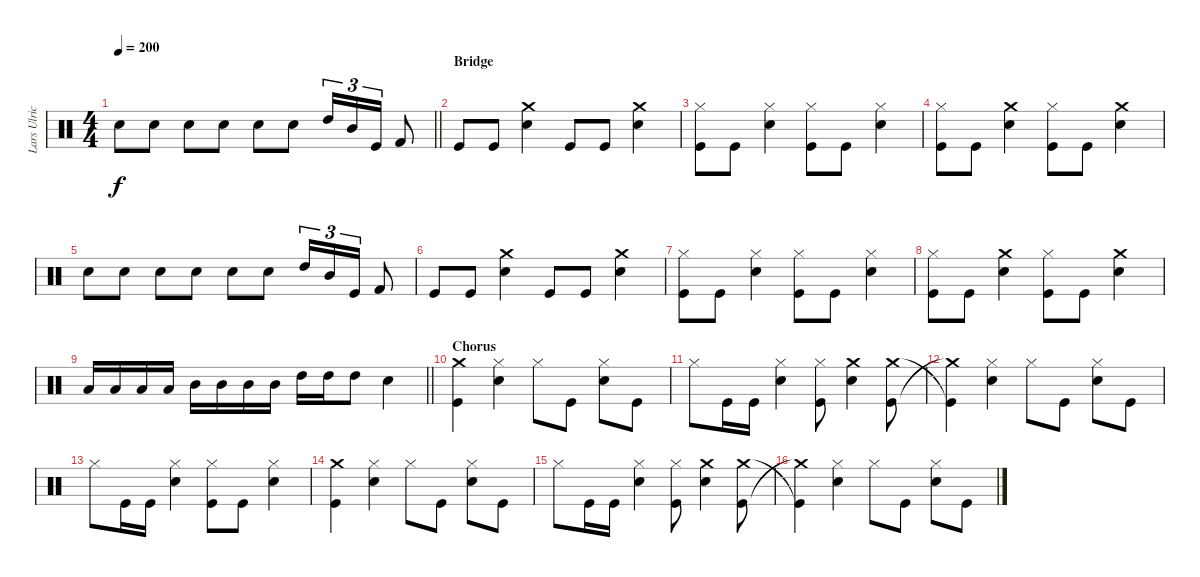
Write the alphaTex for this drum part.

\track ("Lars Ulrich (Drums)" "Lars Ulric") {instrument percussion}
\staff {score}
\articulation defaults
\ts (4 4)
\tempo 200
\clef neutral
\barLineRight lightlight
\ks c "Snare (hit) 2".8{dy f} "Snare (hit) 2".8 "Snare (hit) 2".8 "Snare (hit) 2".8 "Snare (hit) 2".8 "Snare (hit) 2".8 "High Tom (hit)".16{tu (3 2)} "Mid Tom (hit)".16{tu (3 2)} "Kick (hit)".16{tu (3 2)} "Kick (hit) 2".8
|
\section ("" "Bridge")
"Kick (hit)".8 "Kick (hit)".8 ("Crash medium (hit)" "Snare (hit) 2").4 "Kick (hit)".8 "Kick (hit)".8 ("Crash medium (hit)" "Snare (hit) 2").4 |
("Kick (hit)" "Hi-Hat (closed)").8 "Kick (hit)".8 ("Snare (hit) 2" "Hi-Hat (closed)").4 ("Kick (hit)" "Hi-Hat (closed)").8 "Kick (hit)".8 ("Snare (hit) 2" "Hi-Hat (closed)").4 |
("Kick (hit)" "Hi-Hat (closed)").8 "Kick (hit)".8 ("Snare (hit) 2" "Crash medium (hit)").4 ("Kick (hit)" "Hi-Hat (closed)").8 "Kick (hit)".8 ("Crash medium (hit)" "Snare (hit) 2").4 |
"Snare (hit) 2".8 "Snare (hit) 2".8 "Snare (hit) 2".8 "Snare (hit) 2".8 "Snare (hit) 2".8 "Snare (hit) 2".8 "High Tom (hit)".16{tu (3 2)} "Mid Tom (hit)".16{tu (3 2)} "Kick (hit)".16{tu (3 2)} "Kick (hit) 2".8 |
"Kick (hit)".8 "Kick (hit)".8 ("Crash medium (hit)" "Snare (hit) 2").4 "Kick (hit)".8 "Kick (hit)".8 ("Crash medium (hit)" "Snare (hit) 2").4 |
("Kick (hit)" "Hi-Hat (closed)").8 "Kick (hit)".8 ("Snare (hit) 2" "Hi-Hat (closed)").4 ("Kick (hit)" "Hi-Hat (closed)").8 "Kick (hit)".8 ("Snare (hit) 2" "Hi-Hat (closed)").4 |
("Kick (hit)" "Hi-Hat (closed)").8 "Kick (hit)".8 ("Snare (hit) 2" "Crash medium (hit)").4 ("Kick (hit)" "Hi-Hat (closed)").8 "Kick (hit)".8 ("Crash medium (hit)" "Snare (hit) 2").4 |
\barLineRight lightlight "Low Tom (hit)".16 "Low Tom (hit)".16 "Low Tom (hit)".16 "Low Tom (hit)".16 "Mid Tom (hit)".16 "Mid Tom (hit)".16 "Mid Tom (hit)".16 "Mid Tom (hit)".16 "High Tom (hit)".16 "High Tom (hit)".16 "High Tom (hit)".8 "Snare (hit) 2".4
|
\section ("" "Chorus")
("Kick (hit)" "Crash medium (hit)").4 ("Hi-Hat (closed)" "Snare (hit) 2").4 "Hi-Hat (closed)".8 "Kick (hit)".8 ("Snare (hit) 2" "Hi-Hat (closed)").8 "Kick (hit)".8 |
"Hi-Hat (closed)".8 "Kick (hit)".16 "Kick (hit)".16 ("Snare (hit) 2" "Hi-Hat (closed)").4 ("Kick (hit)" "Hi-Hat (closed)").8 ("Snare (hit) 2" "Crash medium (hit)").4 ("Crash medium (hit)" "Kick (hit)").8 |
("Kick (hit)"{t} "Crash medium (hit)"{t}).4 ("Hi-Hat (closed)" "Snare (hit) 2").4 "Hi-Hat (closed)".8 "Kick (hit)".8 ("Snare (hit) 2" "Hi-Hat (closed)").8 "Kick (hit)".8 |
"Hi-Hat (closed)".8 "Kick (hit)".16 "Kick (hit)".16 ("Snare (hit) 2" "Hi-Hat (closed)").4 ("Hi-Hat (closed)" "Kick (hit)").8 "Kick (hit)".8 ("Snare (hit) 2" "Hi-Hat (closed)").4 |
("Kick (hit)" "Crash medium (hit)").4 ("Hi-Hat (closed)" "Snare (hit) 2").4 "Hi-Hat (closed)".8 "Kick (hit)".8 ("Snare (hit) 2" "Hi-Hat (closed)").8 "Kick (hit)".8 |
"Hi-Hat (closed)".8 "Kick (hit)".16 "Kick (hit)".16 ("Snare (hit) 2" "Hi-Hat (closed)").4 ("Kick (hit)" "Hi-Hat (closed)").8 ("Snare (hit) 2" "Crash medium (hit)").4 ("Crash medium (hit)" "Kick (hit)").8 |
("Kick (hit)"{t} "Crash medium (hit)"{t}).4 ("Hi-Hat (closed)" "Snare (hit) 2").4 "Hi-Hat (closed)".8 "Kick (hit)".8 ("Snare (hit) 2" "Hi-Hat (closed)").8 "Kick (hit)".8
